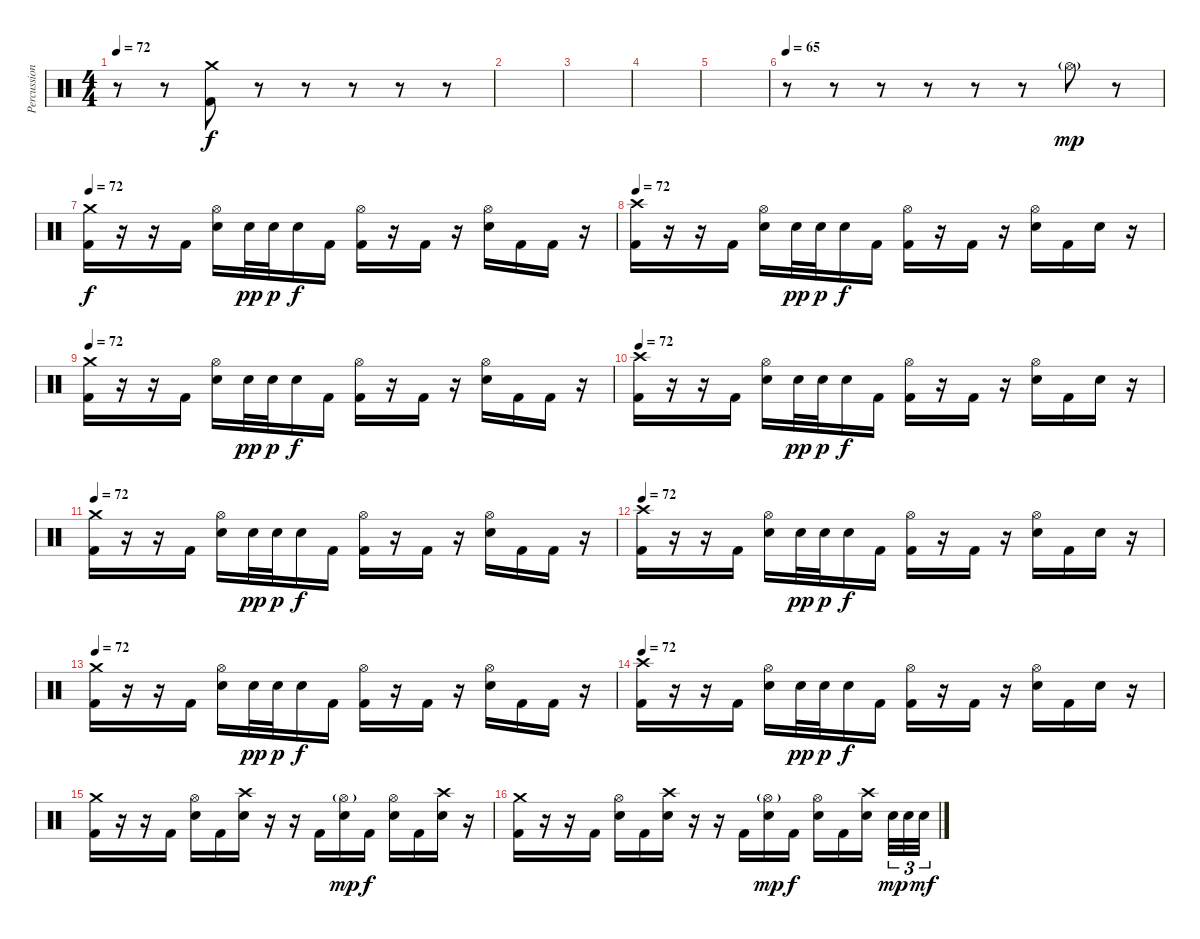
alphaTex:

\track ("Percussion" "Percussion") {instrument percussion}
\staff {score}
\articulation defaults
\ts (4 4)
\tempo 72
\clef neutral
\ks c
r.8{dy f} r.8 ("Crash medium (hit)" "Kick (hit) 2").8 r.8 r.8 r.8 r.8 r.8 |
|
|
|
|
\tempo 65
r.8 r.8 r.8 r.8 r.8 r.8 "Hi-Hat (open)"{g}.8{dy mp} r.8 |
\section ("" "")
\tempo 72
("Crash medium (hit)" "Kick (hit) 2").16{dy f} r.16 r.16 "Kick (hit) 2".16 ("Hi-Hat (open)" "Electric Snare (hit)").16 "Electric Snare (hit)".32{dy pp} "Electric Snare (hit)".32{dy p} "Electric Snare (hit)".16{dy f} "Kick (hit) 2".16 ("Hi-Hat (open)" "Kick (hit) 2").16 r.16 "Kick (hit) 2".16 r.16 ("Hi-Hat (open)" "Electric Snare (hit)").16 "Kick (hit) 2".16 "Kick (hit) 2".16 r.16 |
\tempo 72
("Crash high (hit)" "Kick (hit) 2").16 r.16 r.16 "Kick (hit) 2".16 ("Hi-Hat (open)" "Electric Snare (hit)").16 "Electric Snare (hit)".32{dy pp} "Electric Snare (hit)".32{dy p} "Electric Snare (hit)".16{dy f} "Kick (hit) 2".16 ("Hi-Hat (open)" "Kick (hit) 2").16 r.16 "Kick (hit) 2".16 r.16 ("Hi-Hat (open)" "Electric Snare (hit)").16 "Kick (hit) 2".16 "Electric Snare (hit)".16 r.16 |
\tempo 72
("Crash medium (hit)" "Kick (hit) 2").16 r.16 r.16 "Kick (hit) 2".16 ("Hi-Hat (open)" "Electric Snare (hit)").16 "Electric Snare (hit)".32{dy pp} "Electric Snare (hit)".32{dy p} "Electric Snare (hit)".16{dy f} "Kick (hit) 2".16 ("Hi-Hat (open)" "Kick (hit) 2").16 r.16 "Kick (hit) 2".16 r.16 ("Hi-Hat (open)" "Electric Snare (hit)").16 "Kick (hit) 2".16 "Kick (hit) 2".16 r.16 |
\tempo 72
("Crash high (hit)" "Kick (hit) 2").16 r.16 r.16 "Kick (hit) 2".16 ("Hi-Hat (open)" "Electric Snare (hit)").16 "Electric Snare (hit)".32{dy pp} "Electric Snare (hit)".32{dy p} "Electric Snare (hit)".16{dy f} "Kick (hit) 2".16 ("Hi-Hat (open)" "Kick (hit) 2").16 r.16 "Kick (hit) 2".16 r.16 ("Hi-Hat (open)" "Electric Snare (hit)").16 "Kick (hit) 2".16 "Electric Snare (hit)".16 r.16 |
\tempo 72
("Crash medium (hit)" "Kick (hit) 2").16 r.16 r.16 "Kick (hit) 2".16 ("Hi-Hat (open)" "Electric Snare (hit)").16 "Electric Snare (hit)".32{dy pp} "Electric Snare (hit)".32{dy p} "Electric Snare (hit)".16{dy f} "Kick (hit) 2".16 ("Hi-Hat (open)" "Kick (hit) 2").16 r.16 "Kick (hit) 2".16 r.16 ("Hi-Hat (open)" "Electric Snare (hit)").16 "Kick (hit) 2".16 "Kick (hit) 2".16 r.16 |
\tempo 72
("Crash high (hit)" "Kick (hit) 2").16 r.16 r.16 "Kick (hit) 2".16 ("Hi-Hat (open)" "Electric Snare (hit)").16 "Electric Snare (hit)".32{dy pp} "Electric Snare (hit)".32{dy p} "Electric Snare (hit)".16{dy f} "Kick (hit) 2".16 ("Hi-Hat (open)" "Kick (hit) 2").16 r.16 "Kick (hit) 2".16 r.16 ("Hi-Hat (open)" "Electric Snare (hit)").16 "Kick (hit) 2".16 "Electric Snare (hit)".16 r.16 |
\tempo 72
("Crash medium (hit)" "Kick (hit) 2").16 r.16 r.16 "Kick (hit) 2".16 ("Hi-Hat (open)" "Electric Snare (hit)").16 "Electric Snare (hit)".32{dy pp} "Electric Snare (hit)".32{dy p} "Electric Snare (hit)".16{dy f} "Kick (hit) 2".16 ("Hi-Hat (open)" "Kick (hit) 2").16 r.16 "Kick (hit) 2".16 r.16 ("Hi-Hat (open)" "Electric Snare (hit)").16 "Kick (hit) 2".16 "Kick (hit) 2".16 r.16 |
\tempo 72
("Crash high (hit)" "Kick (hit) 2").16 r.16 r.16 "Kick (hit) 2".16 ("Hi-Hat (open)" "Electric Snare (hit)").16 "Electric Snare (hit)".32{dy pp} "Electric Snare (hit)".32{dy p} "Electric Snare (hit)".16{dy f} "Kick (hit) 2".16 ("Hi-Hat (open)" "Kick (hit) 2").16 r.16 "Kick (hit) 2".16 r.16 ("Hi-Hat (open)" "Electric Snare (hit)").16 "Kick (hit) 2".16 "Electric Snare (hit)".16 r.16 |
("Crash medium (hit)" "Kick (hit) 2").16 r.16 r.16 "Kick (hit) 2".16 ("Hi-Hat (open)" "Electric Snare (hit)").16 "Kick (hit) 2".16 ("Crash high (hit)" "Electric Snare (hit)").16 r.16 r.16 "Kick (hit) 2".16 ("Hi-Hat (open)"{g} "Electric Snare (hit)").16{dy mp} "Kick (hit) 2".16{dy f} ("Hi-Hat (open)" "Electric Snare (hit)").16 "Kick (hit) 2".16 ("Crash high (hit)" "Electric Snare (hit)").16 r.16 |
("Crash medium (hit)" "Kick (hit) 2").16 r.16 r.16 "Kick (hit) 2".16 ("Hi-Hat (open)" "Electric Snare (hit)").16 "Kick (hit) 2".16 ("Crash high (hit)" "Electric Snare (hit)").16 r.16 r.16 "Kick (hit) 2".16 ("Hi-Hat (open)"{g} "Electric Snare (hit)").16{dy mp} "Kick (hit) 2".16{dy f} ("Hi-Hat (open)" "Electric Snare (hit)").16 "Kick (hit) 2".16 ("Crash high (hit)" "Electric Snare (hit)").16 "Electric Snare (hit)".32{tu (3 2) dy mp} "Electric Snare (hit)".32{tu (3 2)} "Electric Snare (hit)".32{tu (3 2) dy mf}
